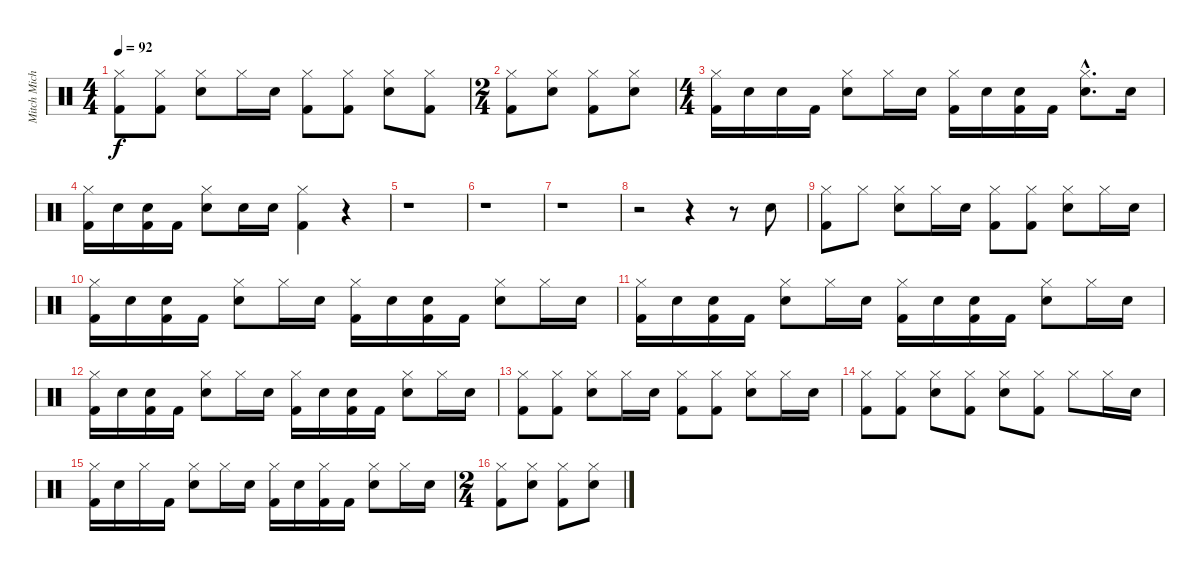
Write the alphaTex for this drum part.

\track ("Mitch Michell" "Mitch Mich") {instrument percussion}
\staff {score}
\articulation defaults
\ts (4 4)
\tempo 92
\clef neutral
\ks c
("Hi-Hat (closed)" "Kick (hit) 2").8{dy f} ("Hi-Hat (closed)" "Kick (hit) 2").8 ("Hi-Hat (closed)" "Snare (hit) 2").8 "Hi-Hat (closed)".16 "Snare (hit) 2".16 ("Hi-Hat (closed)" "Kick (hit) 2").8 ("Hi-Hat (closed)" "Kick (hit) 2").8 ("Hi-Hat (closed)" "Snare (hit) 2").8 ("Hi-Hat (closed)" "Kick (hit) 2").8 |
\ts (2 4)
("Hi-Hat (closed)" "Kick (hit) 2").8 ("Hi-Hat (closed)" "Snare (hit) 2").8 ("Hi-Hat (closed)" "Kick (hit) 2").8 ("Hi-Hat (closed)" "Snare (hit) 2").8 |
\ts (4 4)
("Hi-Hat (closed)" "Kick (hit) 2").16 "Snare (hit) 2".16 "Snare (hit) 2".16 "Kick (hit) 2".16 ("Hi-Hat (closed)" "Snare (hit) 2").8 "Hi-Hat (closed)".16 "Snare (hit) 2".16 ("Hi-Hat (closed)" "Kick (hit) 2").16 "Snare (hit) 2".16 ("Snare (hit) 2" "Kick (hit) 2").16 "Kick (hit) 2".16 ("Hi-Hat (closed)"{hac} "Snare (hit) 2"{hac}).8{d} "Snare (hit) 2".16 |
("Hi-Hat (closed)" "Kick (hit) 2").16 "Snare (hit) 2".16 ("Snare (hit) 2" "Kick (hit) 2").16 "Kick (hit) 2".16 ("Hi-Hat (closed)" "Snare (hit) 2").8 "Snare (hit) 2".16 "Snare (hit) 2".16 ("Hi-Hat (closed)" "Kick (hit) 2").4 r.4 |
r.1 |
r.1 |
r.1 |
r.2 r.4 r.8 "Snare (hit) 2".8 |
("Hi-Hat (closed)" "Kick (hit) 2").8 "Hi-Hat (closed)".8 ("Hi-Hat (closed)" "Snare (hit) 2").8 "Hi-Hat (closed)".16 "Snare (hit) 2".16 ("Hi-Hat (closed)" "Kick (hit) 2").8 ("Hi-Hat (closed)" "Kick (hit) 2").8 ("Hi-Hat (closed)" "Snare (hit) 2").8 "Hi-Hat (closed)".16 "Snare (hit) 2".16 |
("Hi-Hat (closed)" "Kick (hit) 2").16 "Snare (hit) 2".16 ("Snare (hit) 2" "Kick (hit) 2").16 "Kick (hit) 2".16 ("Hi-Hat (closed)" "Snare (hit) 2").8 "Hi-Hat (closed)".16 "Snare (hit) 2".16 ("Hi-Hat (closed)" "Kick (hit) 2").16 "Snare (hit) 2".16 ("Snare (hit) 2" "Kick (hit) 2").16 "Kick (hit) 2".16 ("Hi-Hat (closed)" "Snare (hit) 2").8 "Hi-Hat (closed)".16 "Snare (hit) 2".16 |
("Hi-Hat (closed)" "Kick (hit) 2").16 "Snare (hit) 2".16 ("Snare (hit) 2" "Kick (hit) 2").16 "Kick (hit) 2".16 ("Hi-Hat (closed)" "Snare (hit) 2").8 "Hi-Hat (closed)".16 "Snare (hit) 2".16 ("Hi-Hat (closed)" "Kick (hit) 2").16 "Snare (hit) 2".16 ("Snare (hit) 2" "Kick (hit) 2").16 "Kick (hit) 2".16 ("Hi-Hat (closed)" "Snare (hit) 2").8 "Hi-Hat (closed)".16 "Snare (hit) 2".16 |
("Hi-Hat (closed)" "Kick (hit) 2").16 "Snare (hit) 2".16 ("Snare (hit) 2" "Kick (hit) 2").16 "Kick (hit) 2".16 ("Hi-Hat (closed)" "Snare (hit) 2").8 "Hi-Hat (closed)".16 "Snare (hit) 2".16 ("Hi-Hat (closed)" "Kick (hit) 2").16 "Snare (hit) 2".16 ("Snare (hit) 2" "Kick (hit) 2").16 "Kick (hit) 2".16 ("Hi-Hat (closed)" "Snare (hit) 2").8 "Hi-Hat (closed)".16 "Snare (hit) 2".16 |
("Hi-Hat (closed)" "Kick (hit) 2").8 ("Hi-Hat (closed)" "Kick (hit) 2").8 ("Hi-Hat (closed)" "Snare (hit) 2").8 "Hi-Hat (closed)".16 "Snare (hit) 2".16 ("Hi-Hat (closed)" "Kick (hit) 2").8 ("Hi-Hat (closed)" "Kick (hit) 2").8 ("Hi-Hat (closed)" "Snare (hit) 2").8 "Hi-Hat (closed)".16 "Snare (hit) 2".16 |
("Hi-Hat (closed)" "Kick (hit) 2").8 ("Hi-Hat (closed)" "Kick (hit) 2").8 ("Hi-Hat (closed)" "Snare (hit) 2").8 ("Hi-Hat (closed)" "Kick (hit) 2").8 ("Hi-Hat (closed)" "Snare (hit) 2").8 ("Hi-Hat (closed)" "Kick (hit) 2").8 "Hi-Hat (closed)".8 "Hi-Hat (closed)".16 "Snare (hit) 2".16 |
("Hi-Hat (closed)" "Kick (hit) 2").16 "Snare (hit) 2".16 "Hi-Hat (closed)".16 "Kick (hit) 2".16 ("Hi-Hat (closed)" "Snare (hit) 2").8 "Hi-Hat (closed)".16 "Snare (hit) 2".16 ("Hi-Hat (closed)" "Kick (hit) 2").16 "Snare (hit) 2".16 ("Hi-Hat (closed)" "Kick (hit) 2").16 "Kick (hit) 2".16 ("Hi-Hat (closed)" "Snare (hit) 2").8 "Hi-Hat (closed)".16 "Snare (hit) 2".16 |
\ts (2 4)
("Hi-Hat (closed)" "Kick (hit) 2").8 ("Hi-Hat (closed)" "Snare (hit) 2").8 ("Hi-Hat (closed)" "Kick (hit) 2").8 ("Hi-Hat (closed)" "Snare (hit) 2").8
